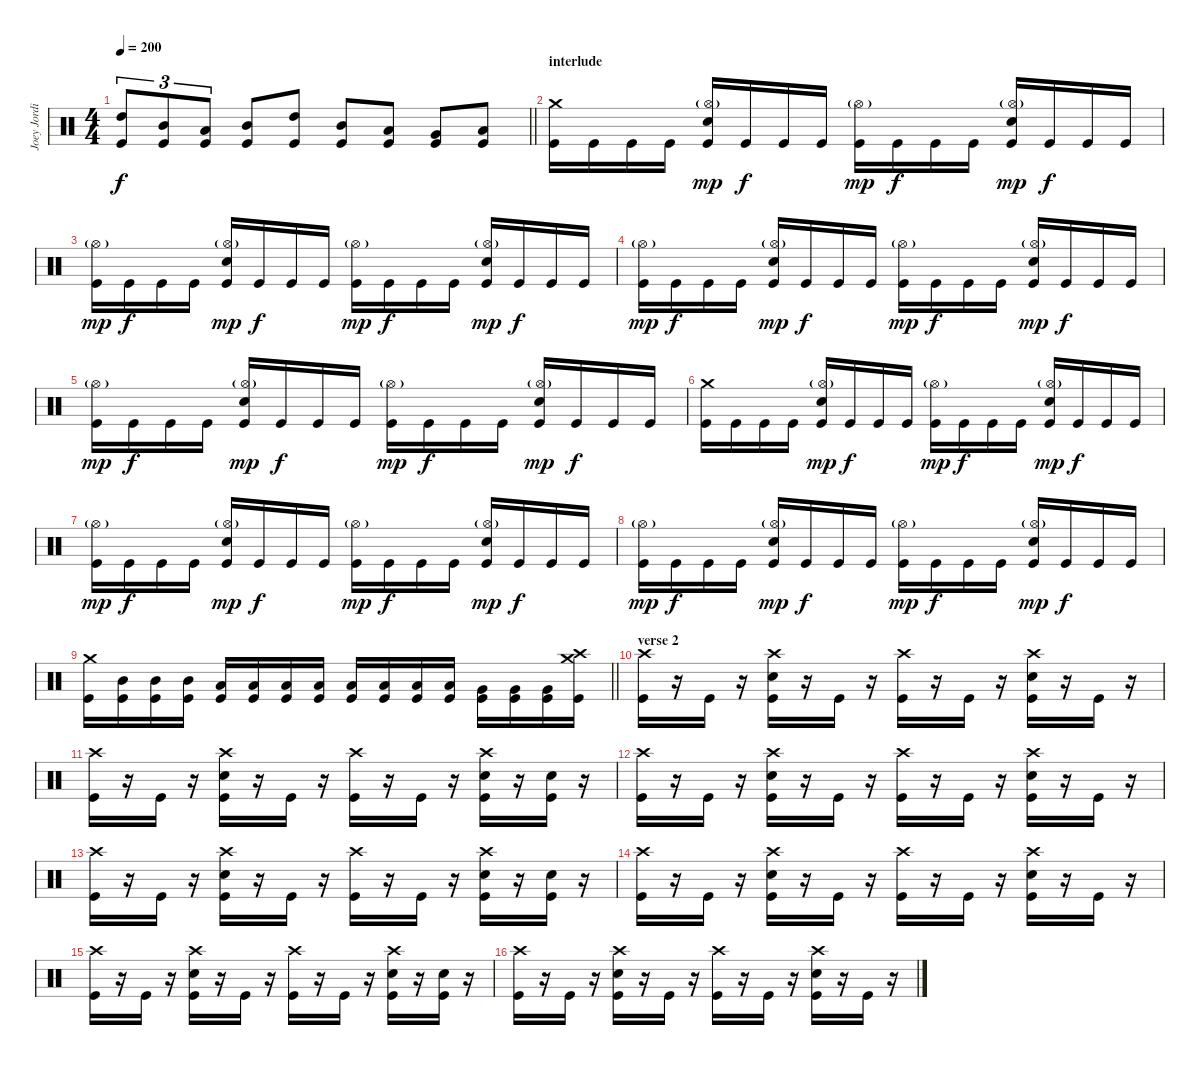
\track ("Joey Jordison" "Joey Jordi") {instrument percussion}
\staff {score}
\articulation defaults
\ts (4 4)
\tempo 200
\clef neutral
\barLineRight lightlight
\ks c
("High Tom (hit)" "Kick (hit)").8{tu (3 2) dy f} ("Mid Tom (hit)" "Kick (hit)").8{tu (3 2)} ("Low Tom (hit)" "Kick (hit)").8{tu (3 2)} ("Mid Tom (hit)" "Kick (hit)").8 ("High Tom (hit)" "Kick (hit)").8 ("Mid Tom (hit)" "Kick (hit)").8 ("Low Tom (hit)" "Kick (hit)").8 ("Very Low Tom (hit)" "Kick (hit)").8 ("Low Tom (hit)" "Kick (hit)").8 |
\section ("" "interlude")
("Crash medium (hit)" "Kick (hit)").16 "Kick (hit)".16 "Kick (hit)".16 "Kick (hit)".16 ("Hi-Hat (open)"{g} "Electric Snare (hit)" "Kick (hit)").16{dy mp} "Kick (hit)".16{dy f} "Kick (hit)".16 "Kick (hit)".16 ("Hi-Hat (open)"{g} "Kick (hit)").16{dy mp} "Kick (hit)".16{dy f} "Kick (hit)".16 "Kick (hit)".16 ("Hi-Hat (open)"{g} "Electric Snare (hit)" "Kick (hit)").16{dy mp} "Kick (hit)".16{dy f} "Kick (hit)".16 "Kick (hit)".16 |
("Hi-Hat (open)"{g} "Kick (hit)").16{dy mp} "Kick (hit)".16{dy f} "Kick (hit)".16 "Kick (hit)".16 ("Hi-Hat (open)"{g} "Electric Snare (hit)" "Kick (hit)").16{dy mp} "Kick (hit)".16{dy f} "Kick (hit)".16 "Kick (hit)".16 ("Hi-Hat (open)"{g} "Kick (hit)").16{dy mp} "Kick (hit)".16{dy f} "Kick (hit)".16 "Kick (hit)".16 ("Hi-Hat (open)"{g} "Electric Snare (hit)" "Kick (hit)").16{dy mp} "Kick (hit)".16{dy f} "Kick (hit)".16 "Kick (hit)".16 |
("Hi-Hat (open)"{g} "Kick (hit)").16{dy mp} "Kick (hit)".16{dy f} "Kick (hit)".16 "Kick (hit)".16 ("Hi-Hat (open)"{g} "Electric Snare (hit)" "Kick (hit)").16{dy mp} "Kick (hit)".16{dy f} "Kick (hit)".16 "Kick (hit)".16 ("Hi-Hat (open)"{g} "Kick (hit)").16{dy mp} "Kick (hit)".16{dy f} "Kick (hit)".16 "Kick (hit)".16 ("Hi-Hat (open)"{g} "Electric Snare (hit)" "Kick (hit)").16{dy mp} "Kick (hit)".16{dy f} "Kick (hit)".16 "Kick (hit)".16 |
("Hi-Hat (open)"{g} "Kick (hit)").16{dy mp} "Kick (hit)".16{dy f} "Kick (hit)".16 "Kick (hit)".16 ("Hi-Hat (open)"{g} "Electric Snare (hit)" "Kick (hit)").16{dy mp} "Kick (hit)".16{dy f} "Kick (hit)".16 "Kick (hit)".16 ("Hi-Hat (open)"{g} "Kick (hit)").16{dy mp} "Kick (hit)".16{dy f} "Kick (hit)".16 "Kick (hit)".16 ("Hi-Hat (open)"{g} "Electric Snare (hit)" "Kick (hit)").16{dy mp} "Kick (hit)".16{dy f} "Kick (hit)".16 "Kick (hit)".16 |
("Crash medium (hit)" "Kick (hit)").16 "Kick (hit)".16 "Kick (hit)".16 "Kick (hit)".16 ("Hi-Hat (open)"{g} "Electric Snare (hit)" "Kick (hit)").16{dy mp} "Kick (hit)".16{dy f} "Kick (hit)".16 "Kick (hit)".16 ("Hi-Hat (open)"{g} "Kick (hit)").16{dy mp} "Kick (hit)".16{dy f} "Kick (hit)".16 "Kick (hit)".16 ("Hi-Hat (open)"{g} "Electric Snare (hit)" "Kick (hit)").16{dy mp} "Kick (hit)".16{dy f} "Kick (hit)".16 "Kick (hit)".16 |
("Hi-Hat (open)"{g} "Kick (hit)").16{dy mp} "Kick (hit)".16{dy f} "Kick (hit)".16 "Kick (hit)".16 ("Hi-Hat (open)"{g} "Electric Snare (hit)" "Kick (hit)").16{dy mp} "Kick (hit)".16{dy f} "Kick (hit)".16 "Kick (hit)".16 ("Hi-Hat (open)"{g} "Kick (hit)").16{dy mp} "Kick (hit)".16{dy f} "Kick (hit)".16 "Kick (hit)".16 ("Hi-Hat (open)"{g} "Electric Snare (hit)" "Kick (hit)").16{dy mp} "Kick (hit)".16{dy f} "Kick (hit)".16 "Kick (hit)".16 |
("Hi-Hat (open)"{g} "Kick (hit)").16{dy mp} "Kick (hit)".16{dy f} "Kick (hit)".16 "Kick (hit)".16 ("Hi-Hat (open)"{g} "Electric Snare (hit)" "Kick (hit)").16{dy mp} "Kick (hit)".16{dy f} "Kick (hit)".16 "Kick (hit)".16 ("Hi-Hat (open)"{g} "Kick (hit)").16{dy mp} "Kick (hit)".16{dy f} "Kick (hit)".16 "Kick (hit)".16 ("Hi-Hat (open)"{g} "Electric Snare (hit)" "Kick (hit)").16{dy mp} "Kick (hit)".16{dy f} "Kick (hit)".16 "Kick (hit)".16 |
\barLineRight lightlight
("Crash medium (hit)" "Kick (hit)").16 ("Mid Tom (hit)" "Kick (hit)").16 ("Mid Tom (hit)" "Kick (hit)").16 ("Mid Tom (hit)" "Kick (hit)").16 ("Low Tom (hit)" "Kick (hit)").16 ("Low Tom (hit)" "Kick (hit)").16 ("Low Tom (hit)" "Kick (hit)").16 ("Low Tom (hit)" "Kick (hit)").16 ("Low Floor Tom (hit)" "Kick (hit)").16 ("Low Floor Tom (hit)" "Kick (hit)").16 ("Low Floor Tom (hit)" "Kick (hit)").16 ("Low Floor Tom (hit)" "Kick (hit)").16 ("Very Low Tom (hit)" "Kick (hit)").16 ("Very Low Tom (hit)" "Kick (hit)").16 ("Very Low Tom (hit)" "Kick (hit)").16 ("Crash medium (hit)" "Crash high (hit)" "Kick (hit)").16 |
\section ("" "verse 2")
("Crash high (hit)" "Kick (hit)").16 r.16 "Kick (hit)".16 r.16 ("Crash high (hit)" "Electric Snare (hit)" "Kick (hit)").16 r.16 "Kick (hit)".16 r.16 ("Crash high (hit)" "Kick (hit)").16 r.16 "Kick (hit)".16 r.16 ("Crash high (hit)" "Electric Snare (hit)" "Kick (hit)").16 r.16 "Kick (hit)".16 r.16 |
("Crash high (hit)" "Kick (hit)").16 r.16 "Kick (hit)".16 r.16 ("Crash high (hit)" "Electric Snare (hit)" "Kick (hit)").16 r.16 "Kick (hit)".16 r.16 ("Crash high (hit)" "Kick (hit)").16 r.16 "Kick (hit)".16 r.16 ("Crash high (hit)" "Electric Snare (hit)" "Kick (hit)").16 r.16 ("Electric Snare (hit)" "Kick (hit)").16 r.16 |
("Crash high (hit)" "Kick (hit)").16 r.16 "Kick (hit)".16 r.16 ("Crash high (hit)" "Electric Snare (hit)" "Kick (hit)").16 r.16 "Kick (hit)".16 r.16 ("Crash high (hit)" "Kick (hit)").16 r.16 "Kick (hit)".16 r.16 ("Crash high (hit)" "Electric Snare (hit)" "Kick (hit)").16 r.16 "Kick (hit)".16 r.16 |
("Crash high (hit)" "Kick (hit)").16 r.16 "Kick (hit)".16 r.16 ("Crash high (hit)" "Electric Snare (hit)" "Kick (hit)").16 r.16 "Kick (hit)".16 r.16 ("Crash high (hit)" "Kick (hit)").16 r.16 "Kick (hit)".16 r.16 ("Crash high (hit)" "Electric Snare (hit)" "Kick (hit)").16 r.16 ("Electric Snare (hit)" "Kick (hit)").16 r.16 |
("Crash high (hit)" "Kick (hit)").16 r.16 "Kick (hit)".16 r.16 ("Crash high (hit)" "Electric Snare (hit)" "Kick (hit)").16 r.16 "Kick (hit)".16 r.16 ("Crash high (hit)" "Kick (hit)").16 r.16 "Kick (hit)".16 r.16 ("Crash high (hit)" "Electric Snare (hit)" "Kick (hit)").16 r.16 "Kick (hit)".16 r.16 |
("Crash high (hit)" "Kick (hit)").16 r.16 "Kick (hit)".16 r.16 ("Crash high (hit)" "Electric Snare (hit)" "Kick (hit)").16 r.16 "Kick (hit)".16 r.16 ("Crash high (hit)" "Kick (hit)").16 r.16 "Kick (hit)".16 r.16 ("Crash high (hit)" "Electric Snare (hit)" "Kick (hit)").16 r.16 ("Electric Snare (hit)" "Kick (hit)").16 r.16 |
("Crash high (hit)" "Kick (hit)").16 r.16 "Kick (hit)".16 r.16 ("Crash high (hit)" "Electric Snare (hit)" "Kick (hit)").16 r.16 "Kick (hit)".16 r.16 ("Crash high (hit)" "Kick (hit)").16 r.16 "Kick (hit)".16 r.16 ("Crash high (hit)" "Electric Snare (hit)" "Kick (hit)").16 r.16 "Kick (hit)".16 r.16
